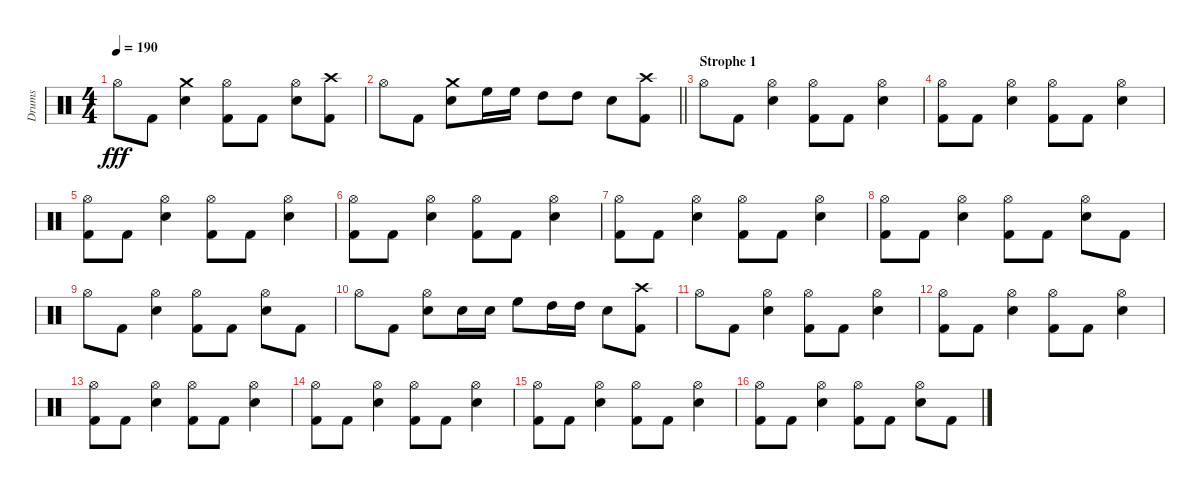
\track ("Drums" "Drums") {instrument percussion}
\staff {score}
\articulation defaults
\ts (4 4)
\tempo 190
\clef neutral
\ks c "Hi-Hat (open)".8{dy fff} "Kick (hit) 2".8
("Electric Snare (hit)" "Crash medium (hit)").4 ("Kick (hit) 2" "Hi-Hat (open)").8 "Kick (hit) 2".8 ("Electric Snare (hit)" "Hi-Hat (open)").8 ("Kick (hit) 2" "Crash high (hit)").8 |
\barLineRight lightlight "Hi-Hat (open)".8 "Kick (hit) 2".8
("Electric Snare (hit)" "Crash medium (hit)").8 "High Floor Tom (hit)".16 "High Floor Tom (hit)".16 "High Tom (hit)".8 "High Tom (hit)".8 "Electric Snare (hit)".8 ("Kick (hit) 2" "Crash high (hit)").8 |
\section ("" "Strophe 1")
"Hi-Hat (open)".8 "Kick (hit) 2".8 ("Electric Snare (hit)" "Hi-Hat (open)").4 ("Kick (hit) 2" "Hi-Hat (open)").8 "Kick (hit) 2".8 ("Electric Snare (hit)" "Hi-Hat (open)").4 |
("Kick (hit) 2" "Hi-Hat (open)").8 "Kick (hit) 2".8 ("Electric Snare (hit)" "Hi-Hat (open)").4 ("Kick (hit) 2" "Hi-Hat (open)").8 "Kick (hit) 2".8 ("Electric Snare (hit)" "Hi-Hat (open)").4 |
("Kick (hit) 2" "Hi-Hat (open)").8 "Kick (hit) 2".8 ("Electric Snare (hit)" "Hi-Hat (open)").4 ("Kick (hit) 2" "Hi-Hat (open)").8 "Kick (hit) 2".8 ("Electric Snare (hit)" "Hi-Hat (open)").4 |
("Kick (hit) 2" "Hi-Hat (open)").8 "Kick (hit) 2".8 ("Electric Snare (hit)" "Hi-Hat (open)").4 ("Kick (hit) 2" "Hi-Hat (open)").8 "Kick (hit) 2".8 ("Electric Snare (hit)" "Hi-Hat (open)").4 |
("Kick (hit) 2" "Hi-Hat (open)").8 "Kick (hit) 2".8 ("Electric Snare (hit)" "Hi-Hat (open)").4 ("Kick (hit) 2" "Hi-Hat (open)").8 "Kick (hit) 2".8 ("Electric Snare (hit)" "Hi-Hat (open)").4 |
("Kick (hit) 2" "Hi-Hat (open)").8 "Kick (hit) 2".8 ("Electric Snare (hit)" "Hi-Hat (open)").4 ("Kick (hit) 2" "Hi-Hat (open)").8 "Kick (hit) 2".8 ("Electric Snare (hit)" "Hi-Hat (open)").8 "Kick (hit) 2".8 |
"Hi-Hat (open)".8 "Kick (hit) 2".8 ("Electric Snare (hit)" "Hi-Hat (open)").4 ("Kick (hit) 2" "Hi-Hat (open)").8 "Kick (hit) 2".8 ("Electric Snare (hit)" "Hi-Hat (open)").8 "Kick (hit) 2".8 |
"Hi-Hat (open)".8 "Kick (hit) 2".8 ("Electric Snare (hit)" "Hi-Hat (open)").8 "Electric Snare (hit)".16 "Electric Snare (hit)".16 "High Floor Tom (hit)".8 "High Tom (hit)".16 "High Tom (hit)".16 "Electric Snare (hit)".8 ("Kick (hit) 2" "Crash high (hit)").8 |
"Hi-Hat (open)".8 "Kick (hit) 2".8 ("Electric Snare (hit)" "Hi-Hat (open)").4 ("Kick (hit) 2" "Hi-Hat (open)").8 "Kick (hit) 2".8 ("Electric Snare (hit)" "Hi-Hat (open)").4 |
("Kick (hit) 2" "Hi-Hat (open)").8 "Kick (hit) 2".8 ("Electric Snare (hit)" "Hi-Hat (open)").4 ("Kick (hit) 2" "Hi-Hat (open)").8 "Kick (hit) 2".8 ("Electric Snare (hit)" "Hi-Hat (open)").4 |
("Kick (hit) 2" "Hi-Hat (open)").8 "Kick (hit) 2".8 ("Electric Snare (hit)" "Hi-Hat (open)").4 ("Kick (hit) 2" "Hi-Hat (open)").8 "Kick (hit) 2".8 ("Electric Snare (hit)" "Hi-Hat (open)").4 |
("Kick (hit) 2" "Hi-Hat (open)").8 "Kick (hit) 2".8 ("Electric Snare (hit)" "Hi-Hat (open)").4 ("Kick (hit) 2" "Hi-Hat (open)").8 "Kick (hit) 2".8 ("Electric Snare (hit)" "Hi-Hat (open)").4 |
("Kick (hit) 2" "Hi-Hat (open)").8 "Kick (hit) 2".8 ("Electric Snare (hit)" "Hi-Hat (open)").4 ("Kick (hit) 2" "Hi-Hat (open)").8 "Kick (hit) 2".8 ("Electric Snare (hit)" "Hi-Hat (open)").4 |
("Kick (hit) 2" "Hi-Hat (open)").8 "Kick (hit) 2".8 ("Electric Snare (hit)" "Hi-Hat (open)").4 ("Kick (hit) 2" "Hi-Hat (open)").8 "Kick (hit) 2".8 ("Electric Snare (hit)" "Hi-Hat (open)").8 "Kick (hit) 2".8
